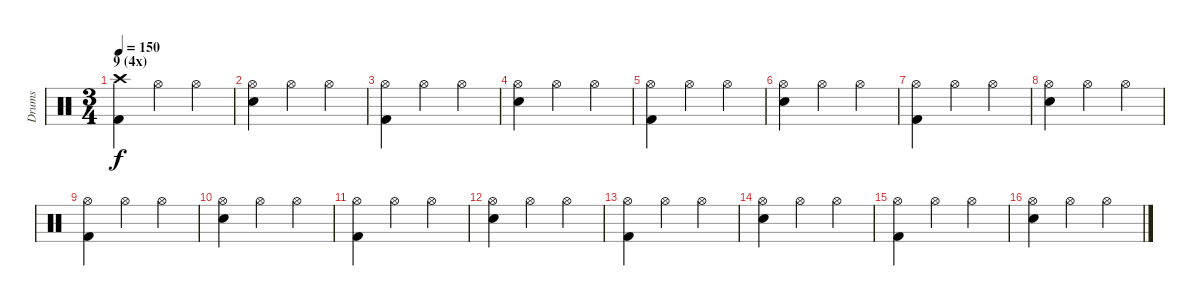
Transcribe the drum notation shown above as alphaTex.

\track ("Drums" "Drums") {instrument percussion}
\staff {score}
\articulation defaults
\ts (3 4)
\section ("" "9 (4x)")
\tempo 150
\clef neutral
\ks c
("Crash high (hit)" "Kick (hit) 2").4{dy f} "Hi-Hat (open)".4 "Hi-Hat (open)".4 |
("Hi-Hat (open)" "Snare (hit) 2").4 "Hi-Hat (open)".4 "Hi-Hat (open)".4 |
("Hi-Hat (open)" "Kick (hit) 2").4 "Hi-Hat (open)".4 "Hi-Hat (open)".4 |
("Hi-Hat (open)" "Snare (hit) 2").4 "Hi-Hat (open)".4 "Hi-Hat (open)".4 |
("Hi-Hat (open)" "Kick (hit) 2").4 "Hi-Hat (open)".4 "Hi-Hat (open)".4 |
("Hi-Hat (open)" "Snare (hit) 2").4 "Hi-Hat (open)".4 "Hi-Hat (open)".4 |
("Hi-Hat (open)" "Kick (hit) 2").4 "Hi-Hat (open)".4 "Hi-Hat (open)".4 |
("Hi-Hat (open)" "Snare (hit) 2").4 "Hi-Hat (open)".4 "Hi-Hat (open)".4 |
("Hi-Hat (open)" "Kick (hit) 2").4 "Hi-Hat (open)".4 "Hi-Hat (open)".4 |
("Hi-Hat (open)" "Snare (hit) 2").4 "Hi-Hat (open)".4 "Hi-Hat (open)".4 |
("Hi-Hat (open)" "Kick (hit) 2").4 "Hi-Hat (open)".4 "Hi-Hat (open)".4 |
("Hi-Hat (open)" "Snare (hit) 2").4 "Hi-Hat (open)".4 "Hi-Hat (open)".4 |
("Hi-Hat (open)" "Kick (hit) 2").4 "Hi-Hat (open)".4 "Hi-Hat (open)".4 |
("Hi-Hat (open)" "Snare (hit) 2").4 "Hi-Hat (open)".4 "Hi-Hat (open)".4 |
("Hi-Hat (open)" "Kick (hit) 2").4 "Hi-Hat (open)".4 "Hi-Hat (open)".4 |
("Hi-Hat (open)" "Snare (hit) 2").4 "Hi-Hat (open)".4 "Hi-Hat (open)".4
